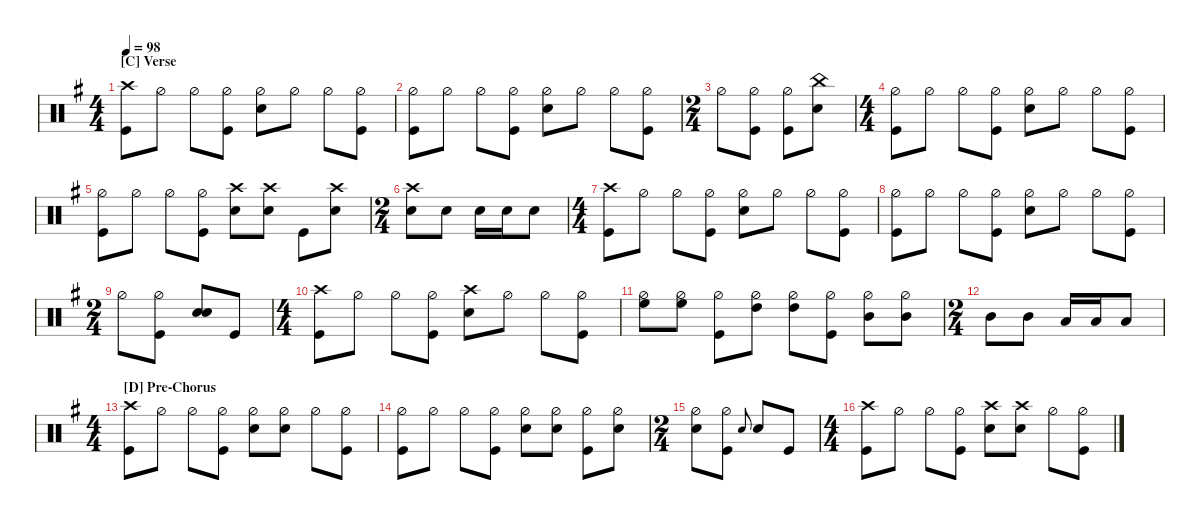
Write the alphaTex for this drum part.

\defaultSystemsLayout 4
\hideDynamics
\bracketExtendMode nobrackets
\otherSystemsTrackNameOrientation horizontal
\track ("Drums" " ") {instrument percussion}
\staff
\articulation defaults
\ts (4 4)
\beaming (8 2 2 2 2)
\section ("C" "Verse")
\tempo 98
\clef neutral
\ks eminor
("Kick (hit)"{acc forcenatural} "Crash high (hit)"{acc forcenatural}).8{dy f} "Hi-Hat (half)"{acc forcenatural}.8 "Hi-Hat (half)"{acc forcenatural}.8 ("Hi-Hat (half)"{acc forcenatural} "Kick (hit)"{acc forcenatural}).8 ("Hi-Hat (half)"{acc forcenatural} "Snare (hit) 2"{acc forcenatural}).8 "Hi-Hat (half)"{acc forcenatural}.8 "Hi-Hat (half)"{acc forcenatural}.8 ("Hi-Hat (half)"{acc forcenatural} "Kick (hit)"{acc forcenatural}).8 |
("Hi-Hat (half)"{acc forcenatural} "Kick (hit)"{acc forcenatural}).8 "Hi-Hat (half)"{acc forcenatural}.8 "Hi-Hat (half)"{acc forcenatural}.8 ("Hi-Hat (half)"{acc forcenatural} "Kick (hit)"{acc forcenatural}).8 ("Hi-Hat (half)"{acc forcenatural} "Snare (hit) 2"{acc forcenatural}).8 "Hi-Hat (half)"{acc forcenatural}.8 "Hi-Hat (half)"{acc forcenatural}.8 ("Hi-Hat (half)"{acc forcenatural} "Kick (hit)"{acc forcenatural}).8 |
\ts (2 4)
\beaming (8 2 2)
"Hi-Hat (half)"{acc forcenatural}.8 ("Hi-Hat (half)"{acc forcenatural} "Kick (hit)"{acc forcenatural}).8 ("Hi-Hat (half)"{acc forcenatural} "Kick (hit)"{acc forcenatural}).8 ("Snare (hit) 2"{acc forcenatural} "China (hit)"{acc forcenatural}).8 |
\ts (4 4)
\beaming (8 2 2 2 2)
("Kick (hit)"{acc forcenatural} "Hi-Hat (half)"{acc forcenatural}).8 "Hi-Hat (half)"{acc forcenatural}.8 "Hi-Hat (half)"{acc forcenatural}.8 ("Hi-Hat (half)"{acc forcenatural} "Kick (hit)"{acc forcenatural}).8 ("Hi-Hat (half)"{acc forcenatural} "Snare (hit) 2"{acc forcenatural}).8 "Hi-Hat (half)"{acc forcenatural}.8 "Hi-Hat (half)"{acc forcenatural}.8 ("Hi-Hat (half)"{acc forcenatural} "Kick (hit)"{acc forcenatural}).8 |
("Hi-Hat (half)"{acc forcenatural} "Kick (hit)"{acc forcenatural}).8 "Hi-Hat (half)"{acc forcenatural}.8 "Hi-Hat (half)"{acc forcenatural}.8 ("Hi-Hat (half)"{acc forcenatural} "Kick (hit)"{acc forcenatural}).8 ("Snare (hit) 2"{acc forcenatural} "Crash high (hit)"{acc forcenatural}).8 ("Snare (hit) 2"{acc forcenatural} "Crash high (hit)"{acc forcenatural}).8 "Kick (hit)"{acc forcenatural}.8 ("Snare (hit) 2"{acc forcenatural} "Crash high (hit)"{acc forcenatural}).8 |
\ts (2 4)
\beaming (8 2 2)
("Snare (hit) 2"{acc forcenatural} "Crash high (hit)"{acc forcenatural}).8 "Snare (hit) 2"{acc forcenatural}.8 "Snare (hit) 2"{acc forcenatural}.16 "Snare (hit) 2"{acc forcenatural}.16 "Snare (hit) 2"{acc forcenatural}.8 |
\ts (4 4)
\beaming (8 2 2 2 2)
("Kick (hit)"{acc forcenatural} "Crash high (hit)"{acc forcenatural}).8 "Hi-Hat (half)"{acc forcenatural}.8 "Hi-Hat (half)"{acc forcenatural}.8 ("Hi-Hat (half)"{acc forcenatural} "Kick (hit)"{acc forcenatural}).8 ("Hi-Hat (half)"{acc forcenatural} "Snare (hit) 2"{acc forcenatural}).8 "Hi-Hat (half)"{acc forcenatural}.8 "Hi-Hat (half)"{acc forcenatural}.8 ("Hi-Hat (half)"{acc forcenatural} "Kick (hit)"{acc forcenatural}).8 |
("Hi-Hat (half)"{acc forcenatural} "Kick (hit)"{acc forcenatural}).8 "Hi-Hat (half)"{acc forcenatural}.8 "Hi-Hat (half)"{acc forcenatural}.8 ("Hi-Hat (half)"{acc forcenatural} "Kick (hit)"{acc forcenatural}).8 ("Hi-Hat (half)"{acc forcenatural} "Snare (hit) 2"{acc forcenatural}).8 "Hi-Hat (half)"{acc forcenatural}.8 "Hi-Hat (half)"{acc forcenatural}.8 ("Hi-Hat (half)"{acc forcenatural} "Kick (hit)"{acc forcenatural}).8 |
\ts (2 4)
\beaming (8 2 2)
"Hi-Hat (half)"{acc forcenatural}.8 ("Hi-Hat (half)"{acc forcenatural} "Kick (hit)"{acc forcenatural}).8 ("Snare (hit) 2"{acc forcenatural} "Snare (hit) 2"{acc forcenatural}).8 "Kick (hit)"{acc forcenatural}.8 |
\ts (4 4)
\beaming (8 2 2 2 2)
("Kick (hit)"{acc forcenatural} "Crash high (hit)"{acc forcenatural}).8 "Hi-Hat (half)"{acc forcenatural}.8 "Hi-Hat (half)"{acc forcenatural}.8 ("Hi-Hat (half)"{acc forcenatural} "Kick (hit)"{acc forcenatural}).8 ("Snare (hit) 2"{acc forcenatural} "Crash high (hit)"{acc forcenatural}).8 "Hi-Hat (half)"{acc forcenatural}.8 "Hi-Hat (half)"{acc forcenatural}.8 ("Hi-Hat (half)"{acc forcenatural} "Kick (hit)"{acc forcenatural}).8 |
("Hi-Hat (half)"{acc forcenatural} "High Floor Tom (hit)"{acc forcenatural}).8{dy ff} ("Hi-Hat (half)"{acc forcenatural} "High Floor Tom (hit)"{acc forcenatural}).8 ("Hi-Hat (half)"{acc forcenatural} "Kick (hit)"{acc forcenatural}).8{dy f} ("Hi-Hat (half)"{acc forcenatural} "High Tom (hit)"{acc forcenatural}).8{dy ff} ("Hi-Hat (half)"{acc forcenatural} "High Tom (hit)"{acc forcenatural}).8 ("Hi-Hat (half)"{acc forcenatural} "Kick (hit)"{acc forcenatural}).8{dy f} ("Hi-Hat (half)"{acc forcenatural} "Mid Tom (hit)"{acc forcenatural}).8{dy ff} ("Hi-Hat (half)"{acc forcenatural} "Mid Tom (hit)"{acc forcenatural}).8 |
\ts (2 4)
\beaming (8 2 2)
"Mid Tom (hit)"{acc forcenatural}.8{dy fff} "Mid Tom (hit)"{acc forcenatural}.8 "Low Tom (hit)"{acc forcenatural}.16 "Low Tom (hit)"{acc forcenatural}.16 "Low Tom (hit)"{acc forcenatural}.8 |
\ts (4 4)
\beaming (8 2 2 2 2)
\section ("D" "Pre-Chorus")
("Kick (hit)"{acc forcenatural} "Crash high (hit)"{acc forcenatural}).8{dy f} "Hi-Hat (half)"{acc forcenatural}.8 "Hi-Hat (half)"{acc forcenatural}.8 ("Hi-Hat (half)"{acc forcenatural} "Kick (hit)"{acc forcenatural}).8 ("Hi-Hat (half)"{acc forcenatural} "Snare (hit) 2"{acc forcenatural}).8 ("Hi-Hat (half)"{acc forcenatural} "Snare (hit) 2"{acc forcenatural}).8 "Hi-Hat (half)"{acc forcenatural}.8 ("Hi-Hat (half)"{acc forcenatural} "Kick (hit)"{acc forcenatural}).8 |
("Hi-Hat (half)"{acc forcenatural} "Kick (hit)"{acc forcenatural}).8 "Hi-Hat (half)"{acc forcenatural}.8 "Hi-Hat (half)"{acc forcenatural}.8 ("Hi-Hat (half)"{acc forcenatural} "Kick (hit)"{acc forcenatural}).8 ("Hi-Hat (half)"{acc forcenatural} "Snare (hit) 2"{acc forcenatural}).8 ("Hi-Hat (half)"{acc forcenatural} "Snare (hit) 2"{acc forcenatural}).8 ("Hi-Hat (half)"{acc forcenatural} "Kick (hit)"{acc forcenatural}).8 ("Hi-Hat (half)"{acc forcenatural} "Snare (hit) 2"{acc forcenatural}).8 |
\ts (2 4)
\beaming (8 2 2)
("Hi-Hat (half)"{acc forcenatural} "Snare (hit) 2"{acc forcenatural}).8 ("Hi-Hat (half)"{acc forcenatural} "Kick (hit)"{acc forcenatural}).8 "Snare (hit) 2"{acc forcenatural}.8{gr onbeat} "Snare (hit) 2"{acc forcenatural}.8 "Kick (hit)"{acc forcenatural}.8 |
\ts (4 4)
\beaming (8 2 2 2 2)
("Kick (hit)"{acc forcenatural} "Crash high (hit)"{acc forcenatural}).8 "Hi-Hat (half)"{acc forcenatural}.8 "Hi-Hat (half)"{acc forcenatural}.8 ("Hi-Hat (half)"{acc forcenatural} "Kick (hit)"{acc forcenatural}).8 ("Snare (hit) 2"{acc forcenatural} "Crash high (hit)"{acc forcenatural}).8 ("Snare (hit) 2"{acc forcenatural} "Crash high (hit)"{acc forcenatural}).8 "Hi-Hat (half)"{acc forcenatural}.8 ("Hi-Hat (half)"{acc forcenatural} "Kick (hit)"{acc forcenatural}).8
